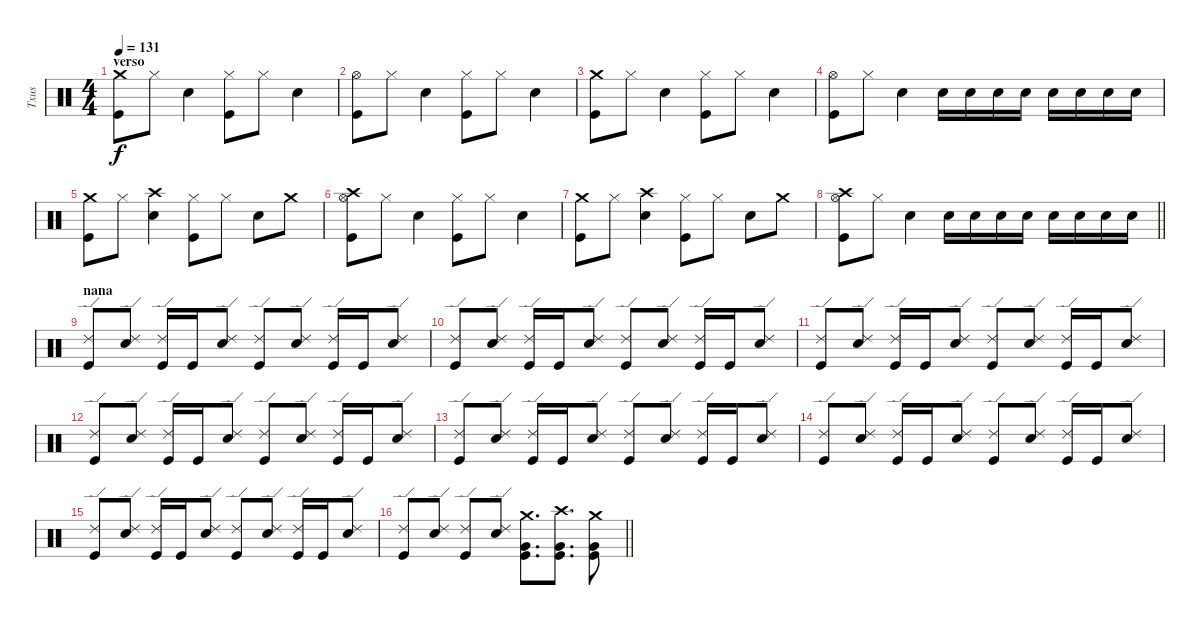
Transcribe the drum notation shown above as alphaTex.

\track ("Txus" "Txus") {instrument percussion}
\staff {score}
\articulation defaults
\ts (4 4)
\section ("" "verso")
\tempo 131
\clef neutral
\ks c
("Crash medium (hit)" "Kick (hit)").8{dy f} "Hi-Hat (closed)".8 "Electric Snare (hit)".4 ("Hi-Hat (closed)" "Kick (hit)").8 "Hi-Hat (closed)".8 "Electric Snare (hit)".4 |
("Hi-Hat (open)" "Kick (hit)").8 "Hi-Hat (closed)".8 "Electric Snare (hit)".4 ("Hi-Hat (closed)" "Kick (hit)").8 "Hi-Hat (closed)".8 "Electric Snare (hit)".4 |
("Crash medium (hit)" "Kick (hit)").8 "Hi-Hat (closed)".8 "Electric Snare (hit)".4 ("Hi-Hat (closed)" "Kick (hit)").8 "Hi-Hat (closed)".8 "Electric Snare (hit)".4 |
("Hi-Hat (open)" "Kick (hit)").8 "Hi-Hat (closed)".8 "Electric Snare (hit)".4 "Electric Snare (hit)".16 "Electric Snare (hit)".16 "Electric Snare (hit)".16 "Electric Snare (hit)".16 "Electric Snare (hit)".16 "Electric Snare (hit)".16 "Electric Snare (hit)".16 "Electric Snare (hit)".16 |
("Crash medium (hit)" "Kick (hit)").8 "Hi-Hat (closed)".8 ("Crash high (hit)" "Electric Snare (hit)").4 ("Hi-Hat (closed)" "Kick (hit)").8 "Hi-Hat (closed)".8 "Electric Snare (hit)".8 "Crash medium (hit)".8 |
("Crash high (hit)" "Hi-Hat (open)" "Kick (hit)").8 "Hi-Hat (closed)".8 "Electric Snare (hit)".4 ("Hi-Hat (closed)" "Kick (hit)").8 "Hi-Hat (closed)".8 "Electric Snare (hit)".4 |
("Crash medium (hit)" "Kick (hit)").8 "Hi-Hat (closed)".8 ("Crash high (hit)" "Electric Snare (hit)").4 ("Hi-Hat (closed)" "Kick (hit)").8 "Hi-Hat (closed)".8 "Electric Snare (hit)".8 "Crash medium (hit)".8 |
\barLineRight lightlight
("Crash high (hit)" "Hi-Hat (open)" "Kick (hit)").8 "Hi-Hat (closed)".8 "Electric Snare (hit)".4 "Electric Snare (hit)".16 "Electric Snare (hit)".16 "Electric Snare (hit)".16 "Electric Snare (hit)".16 "Electric Snare (hit)".16 "Electric Snare (hit)".16 "Electric Snare (hit)".16 "Electric Snare (hit)".16 |
\section ("" "nana")
("Ride (edge) 2" "Kick (hit)").8 ("Ride (edge) 2" "Electric Snare (hit)").8 ("Ride (edge) 2" "Kick (hit)").16 "Kick (hit)".16 ("Ride (edge) 2" "Electric Snare (hit)").8 ("Ride (edge) 2" "Kick (hit)").8 ("Ride (edge) 2" "Electric Snare (hit)").8 ("Ride (edge) 2" "Kick (hit)").16 "Kick (hit)".16 ("Ride (edge) 2" "Electric Snare (hit)").8 |
("Ride (edge) 2" "Kick (hit)").8 ("Ride (edge) 2" "Electric Snare (hit)").8 ("Ride (edge) 2" "Kick (hit)").16 "Kick (hit)".16 ("Ride (edge) 2" "Electric Snare (hit)").8 ("Ride (edge) 2" "Kick (hit)").8 ("Ride (edge) 2" "Electric Snare (hit)").8 ("Ride (edge) 2" "Kick (hit)").16 "Kick (hit)".16 ("Ride (edge) 2" "Electric Snare (hit)").8 |
("Ride (edge) 2" "Kick (hit)").8 ("Ride (edge) 2" "Electric Snare (hit)").8 ("Ride (edge) 2" "Kick (hit)").16 "Kick (hit)".16 ("Ride (edge) 2" "Electric Snare (hit)").8 ("Ride (edge) 2" "Kick (hit)").8 ("Ride (edge) 2" "Electric Snare (hit)").8 ("Ride (edge) 2" "Kick (hit)").16 "Kick (hit)".16 ("Ride (edge) 2" "Electric Snare (hit)").8 |
("Ride (edge) 2" "Kick (hit)").8 ("Ride (edge) 2" "Electric Snare (hit)").8 ("Ride (edge) 2" "Kick (hit)").16 "Kick (hit)".16 ("Ride (edge) 2" "Electric Snare (hit)").8 ("Ride (edge) 2" "Kick (hit)").8 ("Ride (edge) 2" "Electric Snare (hit)").8 ("Ride (edge) 2" "Kick (hit)").16 "Kick (hit)".16 ("Ride (edge) 2" "Electric Snare (hit)").8 |
("Ride (edge) 2" "Kick (hit)").8 ("Ride (edge) 2" "Electric Snare (hit)").8 ("Ride (edge) 2" "Kick (hit)").16 "Kick (hit)".16 ("Ride (edge) 2" "Electric Snare (hit)").8 ("Ride (edge) 2" "Kick (hit)").8 ("Ride (edge) 2" "Electric Snare (hit)").8 ("Ride (edge) 2" "Kick (hit)").16 "Kick (hit)".16 ("Ride (edge) 2" "Electric Snare (hit)").8 |
("Ride (edge) 2" "Kick (hit)").8 ("Ride (edge) 2" "Electric Snare (hit)").8 ("Ride (edge) 2" "Kick (hit)").16 "Kick (hit)".16 ("Ride (edge) 2" "Electric Snare (hit)").8 ("Ride (edge) 2" "Kick (hit)").8 ("Ride (edge) 2" "Electric Snare (hit)").8 ("Ride (edge) 2" "Kick (hit)").16 "Kick (hit)".16 ("Ride (edge) 2" "Electric Snare (hit)").8 |
("Ride (edge) 2" "Kick (hit)").8 ("Ride (edge) 2" "Electric Snare (hit)").8 ("Ride (edge) 2" "Kick (hit)").16 "Kick (hit)".16 ("Ride (edge) 2" "Electric Snare (hit)").8 ("Ride (edge) 2" "Kick (hit)").8 ("Ride (edge) 2" "Electric Snare (hit)").8 ("Ride (edge) 2" "Kick (hit)").16 "Kick (hit)".16 ("Ride (edge) 2" "Electric Snare (hit)").8 |
\barLineRight lightlight
("Ride (edge) 2" "Kick (hit)").8 ("Ride (edge) 2" "Electric Snare (hit)").8 ("Ride (edge) 2" "Kick (hit)").8 ("Ride (edge) 2" "Electric Snare (hit)").8 ("Crash medium (hit)" "Very Low Tom (hit)" "Kick (hit)").8{d} ("Crash high (hit)" "Very Low Tom (hit)" "Kick (hit)").8{d} ("Crash medium (hit)" "Very Low Tom (hit)" "Kick (hit)").8
